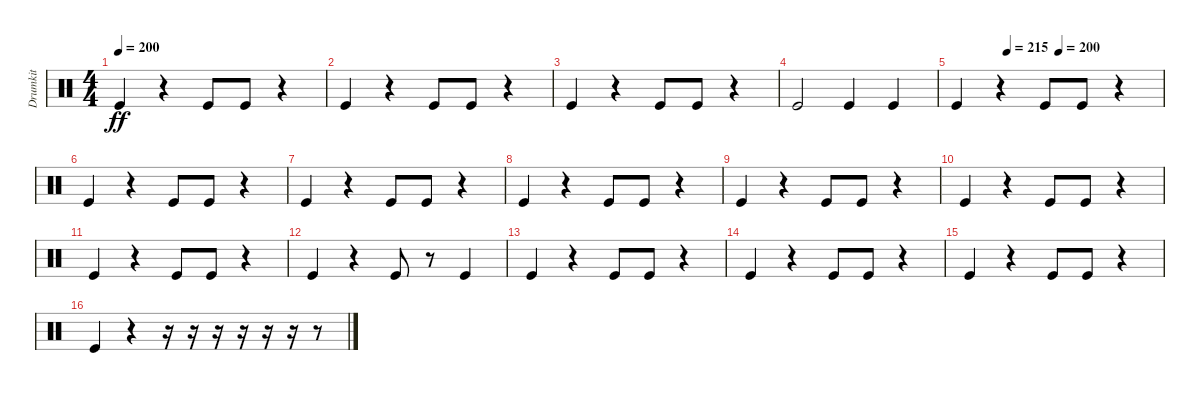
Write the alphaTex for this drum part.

\track ("Drumkit" "Drumkit") {instrument percussion}
\staff {score}
\articulation defaults
\ts (4 4)
\tempo 200
\clef neutral
\ks c "Kick (hit)".4{dy ff}
r.4 "Kick (hit)".8 "Kick (hit)".8 r.4 |
"Kick (hit)".4 r.4 "Kick (hit)".8 "Kick (hit)".8 r.4 |
"Kick (hit)".4 r.4 "Kick (hit)".8 "Kick (hit)".8 r.4 |
"Kick (hit)".2 "Kick (hit)".4 "Kick (hit)".4 |
\tempo (215 0.25)
\tempo (200 0.5)
"Kick (hit)".4 r.4 "Kick (hit)".8 "Kick (hit)".8 r.4 |
"Kick (hit)".4 r.4 "Kick (hit)".8 "Kick (hit)".8 r.4 |
"Kick (hit)".4 r.4 "Kick (hit)".8 "Kick (hit)".8 r.4 |
"Kick (hit)".4 r.4 "Kick (hit)".8 "Kick (hit)".8 r.4 |
"Kick (hit)".4 r.4 "Kick (hit)".8 "Kick (hit)".8 r.4 |
"Kick (hit)".4 r.4 "Kick (hit)".8 "Kick (hit)".8 r.4 |
"Kick (hit)".4 r.4 "Kick (hit)".8 "Kick (hit)".8 r.4 |
"Kick (hit)".4 r.4 "Kick (hit)".8 r.8 "Kick (hit)".4 |
"Kick (hit)".4 r.4 "Kick (hit)".8 "Kick (hit)".8 r.4 |
"Kick (hit)".4 r.4 "Kick (hit)".8 "Kick (hit)".8 r.4 |
"Kick (hit)".4 r.4 "Kick (hit)".8 "Kick (hit)".8 r.4 |
"Kick (hit)".4 r.4 r.16 r.16 r.16 r.16 r.16 r.16 r.8
